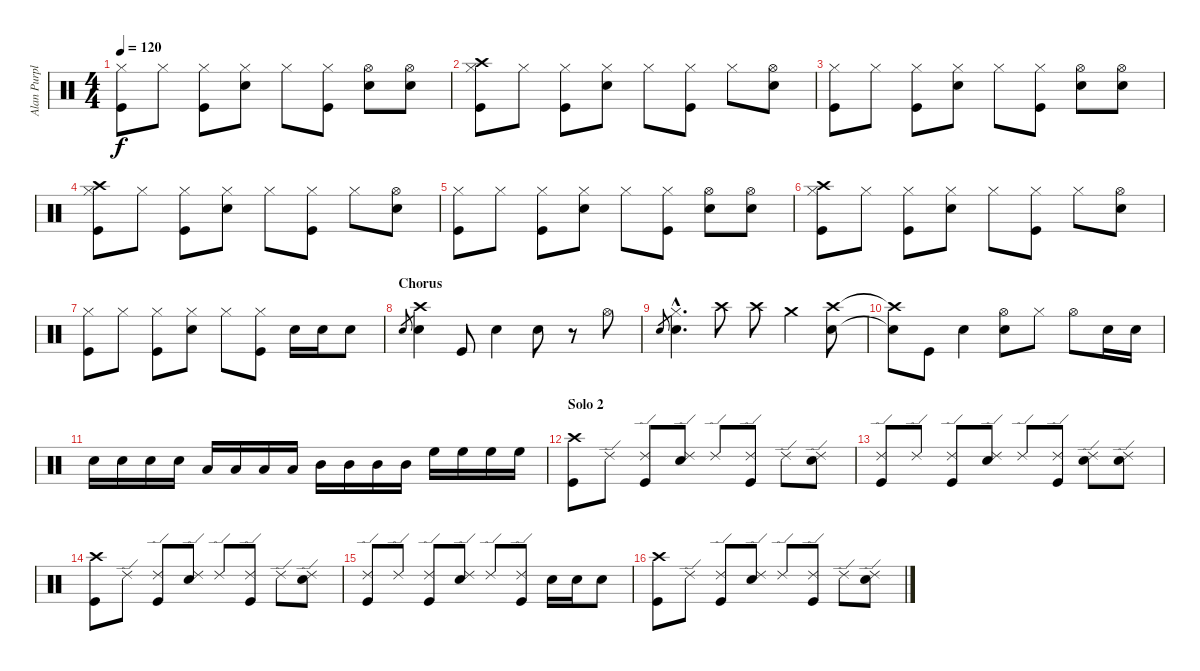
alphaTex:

\track ("Alan Purple" "Alan Purpl") {instrument percussion}
\staff {score}
\articulation defaults
\ts (4 4)
\tempo 120
\clef neutral
\ks c
("Hi-Hat (closed)" "Kick (hit)").8{dy f} "Hi-Hat (closed)".8 ("Hi-Hat (closed)" "Kick (hit)").8 ("Hi-Hat (closed)" "Snare (hit) 2").8 "Hi-Hat (closed)".8 ("Hi-Hat (closed)" "Kick (hit)").8 ("Hi-Hat (open)" "Electric Snare (hit)").8 ("Hi-Hat (open)" "Snare (hit) 2").8 |
("Crash high (hit)" "Hi-Hat (closed)" "Kick (hit)").8 "Hi-Hat (closed)".8 ("Hi-Hat (closed)" "Kick (hit)").8 ("Hi-Hat (closed)" "Snare (hit) 2").8 "Hi-Hat (closed)".8 ("Hi-Hat (closed)" "Kick (hit)").8 "Hi-Hat (closed)".8 ("Hi-Hat (open)" "Snare (hit) 2").8 |
("Hi-Hat (closed)" "Kick (hit)").8 "Hi-Hat (closed)".8 ("Hi-Hat (closed)" "Kick (hit)").8 ("Hi-Hat (closed)" "Snare (hit) 2").8 "Hi-Hat (closed)".8 ("Hi-Hat (closed)" "Kick (hit)").8 ("Hi-Hat (open)" "Electric Snare (hit)").8 ("Hi-Hat (open)" "Snare (hit) 2").8 |
("Crash high (hit)" "Hi-Hat (closed)" "Kick (hit)").8 "Hi-Hat (closed)".8 ("Hi-Hat (closed)" "Kick (hit)").8 ("Hi-Hat (closed)" "Snare (hit) 2").8 "Hi-Hat (closed)".8 ("Hi-Hat (closed)" "Kick (hit)").8 "Hi-Hat (closed)".8 ("Hi-Hat (open)" "Snare (hit) 2").8 |
("Hi-Hat (closed)" "Kick (hit)").8 "Hi-Hat (closed)".8 ("Hi-Hat (closed)" "Kick (hit)").8 ("Hi-Hat (closed)" "Snare (hit) 2").8 "Hi-Hat (closed)".8 ("Hi-Hat (closed)" "Kick (hit)").8 ("Hi-Hat (open)" "Electric Snare (hit)").8 ("Hi-Hat (open)" "Snare (hit) 2").8 |
("Crash high (hit)" "Hi-Hat (closed)" "Kick (hit)").8 "Hi-Hat (closed)".8 ("Hi-Hat (closed)" "Kick (hit)").8 ("Hi-Hat (closed)" "Snare (hit) 2").8 "Hi-Hat (closed)".8 ("Hi-Hat (closed)" "Kick (hit)").8 "Hi-Hat (closed)".8 ("Hi-Hat (open)" "Snare (hit) 2").8 |
("Hi-Hat (closed)" "Kick (hit)").8 "Hi-Hat (closed)".8 ("Hi-Hat (closed)" "Kick (hit)").8 ("Hi-Hat (closed)" "Snare (hit) 2").8 "Hi-Hat (closed)".8 ("Hi-Hat (closed)" "Kick (hit)").8 "Electric Snare (hit)".16 "Electric Snare (hit)".16 "Electric Snare (hit)".8 |
\section ("" "Chorus")
"Snare (hit) 2".8{gr} ("Crash high (hit)" "Snare (hit) 2").4 "Kick (hit)".8 "Snare (hit) 2".4 "Snare (hit) 2".8 r.8 "Hi-Hat (open)".8 |
"Snare (hit) 2".8{gr} ("Hi-Hat (closed)"{hac} "Snare (hit) 2"{hac}).4{d} "Crash high (hit)".8 "Crash high (hit)".8 "Crash medium (hit)".4 ("Crash high (hit)" "Snare (hit) 2").8 |
("Crash high (hit)"{t} "Snare (hit) 2"{t}).8 "Kick (hit)".8 "Snare (hit) 2".4 ("Hi-Hat (open)" "Snare (hit) 2").8 "Hi-Hat (closed)".8 "Hi-Hat (open)".8 "Electric Snare (hit)".16 "Electric Snare (hit)".16 |
"Electric Snare (hit)".16 "Electric Snare (hit)".16 "Electric Snare (hit)".16 "Electric Snare (hit)".16 "Low Tom (hit)".16 "Low Tom (hit)".16 "Low Tom (hit)".16 "Low Tom (hit)".16 "Mid Tom (hit)".16 "Mid Tom (hit)".16 "Mid Tom (hit)".16 "Mid Tom (hit)".16 "High Floor Tom (hit)".16 "High Floor Tom (hit)".16 "High Floor Tom (hit)".16 "High Floor Tom (hit)".16 |
\section ("" "Solo 2")
("Crash high (hit)" "Kick (hit)").8 "Ride (edge) 2".8 ("Ride (edge) 2" "Kick (hit)").8 ("Ride (edge) 2" "Snare (hit) 2").8 "Ride (edge) 2".8 ("Ride (edge) 2" "Kick (hit)").8 "Ride (edge) 2".8 ("Ride (edge) 2" "Snare (hit) 2").8 |
("Ride (edge) 2" "Kick (hit)").8 "Ride (edge) 2".8 ("Ride (edge) 2" "Kick (hit)").8 ("Ride (edge) 2" "Snare (hit) 2").8 "Ride (edge) 2".8 ("Ride (edge) 2" "Kick (hit)").8 ("Ride (edge) 2" "Electric Snare (hit)").8 ("Ride (edge) 2" "Snare (hit) 2").8 |
("Crash high (hit)" "Kick (hit)").8 "Ride (edge) 2".8 ("Ride (edge) 2" "Kick (hit)").8 ("Ride (edge) 2" "Snare (hit) 2").8 "Ride (edge) 2".8 ("Ride (edge) 2" "Kick (hit)").8 "Ride (edge) 2".8 ("Ride (edge) 2" "Snare (hit) 2").8 |
("Ride (edge) 2" "Kick (hit)").8 "Ride (edge) 2".8 ("Ride (edge) 2" "Kick (hit)").8 ("Ride (edge) 2" "Snare (hit) 2").8 "Ride (edge) 2".8 ("Ride (edge) 2" "Kick (hit)").8 "Electric Snare (hit)".16 "Electric Snare (hit)".16 "Electric Snare (hit)".8 |
("Crash high (hit)" "Kick (hit)").8 "Ride (edge) 2".8 ("Ride (edge) 2" "Kick (hit)").8 ("Ride (edge) 2" "Snare (hit) 2").8 "Ride (edge) 2".8 ("Ride (edge) 2" "Kick (hit)").8 "Ride (edge) 2".8 ("Ride (edge) 2" "Snare (hit) 2").8
